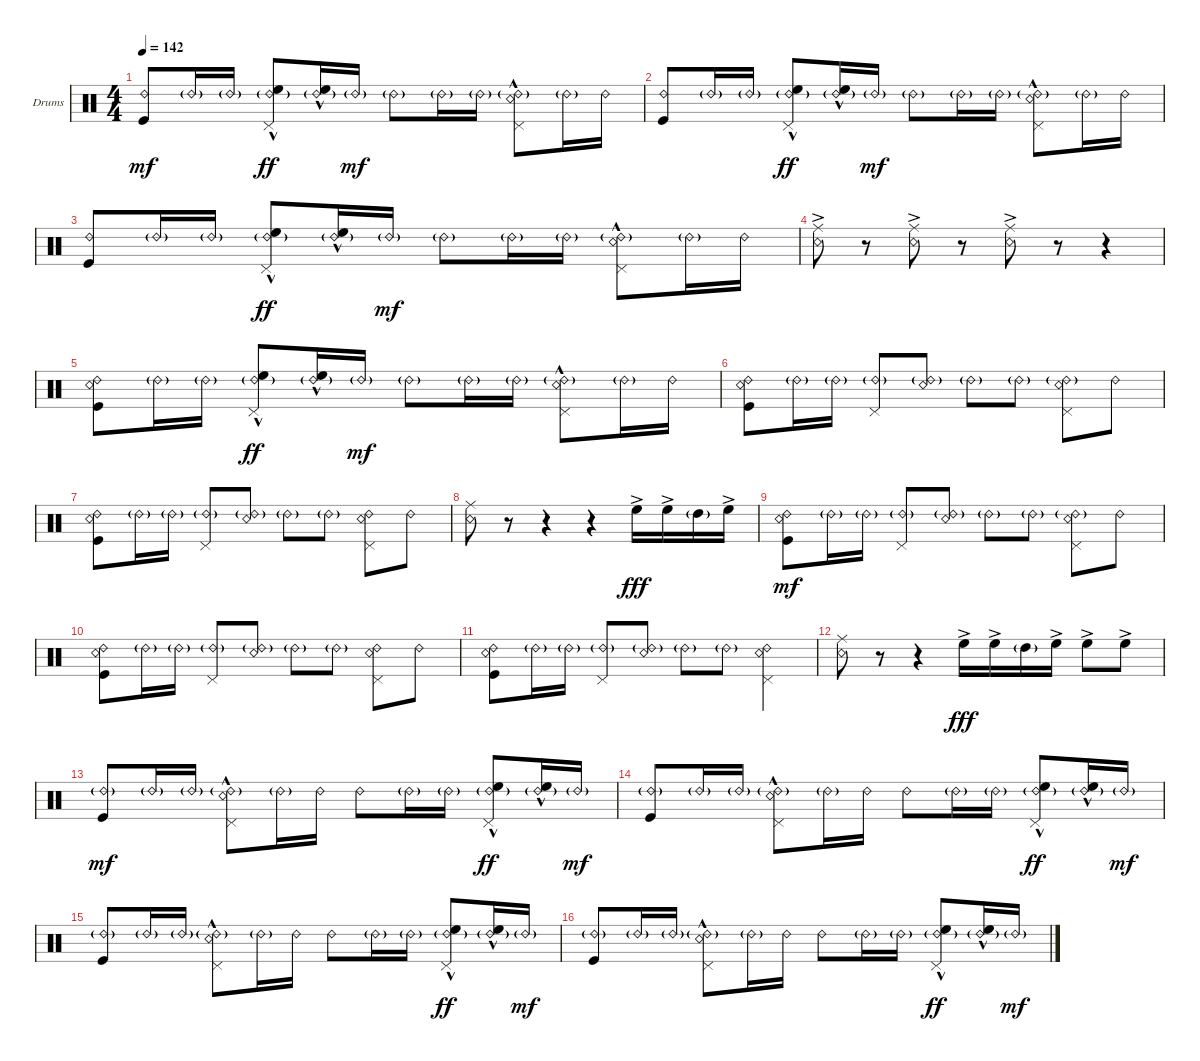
\defaultSystemsLayout 4
\bracketExtendMode groupsimilarinstruments
\firstSystemTrackNameOrientation horizontal
\otherSystemsTrackNameOrientation horizontal
\track ("Drums" "Drums") {instrument percussion}
\staff {score}
\articulation defaults
\ts (4 4)
\tempo 142
\clef neutral
\scale
0.333333
\ks c
("Ride (bell) 2" "Kick (hit)").8{dy mf} "Ride (bell) 2"{g}.16 "Ride (bell) 2"{g}.16 ("Ride (bell) 2"{g} "High Floor Tom (hit)"{hac} "Pedal Hi-Hat (hit)").8{dy ff} ("Ride (bell) 2"{g} "High Floor Tom (hit)"{hac}).16 "Ride (bell) 2"{g}.16{dy mf} "Ride (bell) 2"{g}.8 "Ride (bell) 2"{g}.16 "Ride (bell) 2"{g}.16 ("Ride (bell) 2"{g} "Snare (rim shot)"{hac} "Pedal Hi-Hat (hit)").8 "Ride (bell) 2"{g}.16 "Ride (bell) 2".16 |
\scale
0.333333 ("Ride (bell) 2" "Kick (hit)").8 "Ride (bell) 2"{g}.16 "Ride (bell) 2"{g}.16 ("Ride (bell) 2"{g} "High Floor Tom (hit)"{hac} "Pedal Hi-Hat (hit)").8{dy ff} ("Ride (bell) 2"{g} "High Floor Tom (hit)"{hac}).16 "Ride (bell) 2"{g}.16{dy mf} "Ride (bell) 2"{g}.8 "Ride (bell) 2"{g}.16 "Ride (bell) 2"{g}.16 ("Ride (bell) 2"{g} "Snare (rim shot)"{hac} "Pedal Hi-Hat (hit)").8 "Ride (bell) 2"{g}.16 "Ride (bell) 2".16 |
\scale
0.333333 ("Ride (bell) 2" "Kick (hit)").8 "Ride (bell) 2"{g}.16 "Ride (bell) 2"{g}.16 ("Ride (bell) 2"{g} "High Floor Tom (hit)"{hac} "Pedal Hi-Hat (hit)").8{dy ff} ("Ride (bell) 2"{g} "High Floor Tom (hit)"{hac}).16 "Ride (bell) 2"{g}.16{dy mf} "Ride (bell) 2"{g}.8 "Ride (bell) 2"{g}.16 "Ride (bell) 2"{g}.16 ("Ride (bell) 2"{g} "Snare (rim shot)"{hac} "Pedal Hi-Hat (hit)").8 "Ride (bell) 2"{g}.16 "Ride (bell) 2".16 |
\scale
0.333333 ("Snare (rim shot)"{ac} "Ride (middle)"{ac}).8 r.8 ("Snare (rim shot)"{ac} "Ride (middle)"{ac}).8 r.8 ("Snare (rim shot)"{ac} "Ride (middle)"{ac}).8 r.8 r.4 |
\scale
0.333333 ("Ride (bell) 2" "Kick (hit)" "Snare (rim shot)").8 "Ride (bell) 2"{g}.16 "Ride (bell) 2"{g}.16 ("Ride (bell) 2"{g} "High Floor Tom (hit)"{hac} "Pedal Hi-Hat (hit)").8{dy ff} ("Ride (bell) 2"{g} "High Floor Tom (hit)"{hac}).16 "Ride (bell) 2"{g}.16{dy mf} "Ride (bell) 2"{g}.8 "Ride (bell) 2"{g}.16 "Ride (bell) 2"{g}.16 ("Ride (bell) 2"{g} "Snare (rim shot)"{hac} "Pedal Hi-Hat (hit)").8 "Ride (bell) 2"{g}.16 "Ride (bell) 2".16 |
\scale
0.333333 ("Ride (bell) 2" "Kick (hit)" "Snare (rim shot)").8 "Ride (bell) 2"{g}.16 "Ride (bell) 2"{g}.16 ("Ride (bell) 2"{g} "Pedal Hi-Hat (hit)").8 ("Ride (bell) 2"{g} "Snare (rim shot)").8 "Ride (bell) 2"{g}.8 "Ride (bell) 2"{g}.8 ("Ride (bell) 2"{g} "Snare (rim shot)" "Pedal Hi-Hat (hit)").8 "Ride (bell) 2".8 |
\scale
0.333333 ("Ride (bell) 2" "Kick (hit)" "Snare (rim shot)").8 "Ride (bell) 2"{g}.16 "Ride (bell) 2"{g}.16 ("Ride (bell) 2"{g} "Pedal Hi-Hat (hit)").8 ("Ride (bell) 2"{g} "Snare (rim shot)").8 "Ride (bell) 2"{g}.8 "Ride (bell) 2"{g}.8 ("Ride (bell) 2" "Snare (rim shot)" "Pedal Hi-Hat (hit)").8 "Ride (bell) 2".8 |
\scale
0.333333 ("Snare (rim shot)" "Ride (middle)").8 r.8 r.4 r.4 "High Floor Tom (hit)"{ac}.16{dy fff} "High Floor Tom (hit)"{ac}.16 "High Tom (hit)"{g}.16 "High Floor Tom (hit)"{ac}.16 |
\scale
0.333333 ("Ride (bell) 2" "Kick (hit)" "Snare (rim shot)").8{dy mf} "Ride (bell) 2"{g}.16 "Ride (bell) 2"{g}.16 ("Ride (bell) 2"{g} "Pedal Hi-Hat (hit)").8 ("Ride (bell) 2"{g} "Snare (rim shot)").8 "Ride (bell) 2"{g}.8 "Ride (bell) 2"{g}.8 ("Ride (bell) 2"{g} "Snare (rim shot)" "Pedal Hi-Hat (hit)").8 "Ride (bell) 2".8 |
\scale
0.333333 ("Ride (bell) 2" "Kick (hit)" "Snare (rim shot)").8 "Ride (bell) 2"{g}.16 "Ride (bell) 2"{g}.16 ("Ride (bell) 2"{g} "Pedal Hi-Hat (hit)").8 ("Ride (bell) 2"{g} "Snare (rim shot)").8 "Ride (bell) 2"{g}.8 "Ride (bell) 2"{g}.8 ("Ride (bell) 2" "Snare (rim shot)" "Pedal Hi-Hat (hit)").8 "Ride (bell) 2".8 |
\scale
0.333333 ("Ride (bell) 2" "Kick (hit)" "Snare (rim shot)").8 "Ride (bell) 2"{g}.16 "Ride (bell) 2"{g}.16 ("Ride (bell) 2"{g} "Pedal Hi-Hat (hit)").8 ("Ride (bell) 2"{g} "Snare (rim shot)").8 "Ride (bell) 2"{g}.8 "Ride (bell) 2"{g}.8 ("Ride (bell) 2" "Snare (rim shot)" "Pedal Hi-Hat (hit)").4 |
\scale
0.333333 ("Snare (rim shot)" "Ride (middle)").8 r.8 r.4 "High Floor Tom (hit)"{ac}.16{dy fff} "High Floor Tom (hit)"{ac}.16 "High Tom (hit)"{g}.16 "High Floor Tom (hit)"{ac}.16 "High Floor Tom (hit)"{ac}.8 "High Floor Tom (hit)"{ac}.8 |
\scale
0.333333 ("Ride (bell) 2"{g} "Kick (hit)").8{dy mf} "Ride (bell) 2"{g}.16 "Ride (bell) 2"{g}.16 ("Ride (bell) 2"{g} "Snare (rim shot)"{hac} "Pedal Hi-Hat (hit)").8 "Ride (bell) 2"{g}.16 "Ride (bell) 2".16 "Ride (bell) 2".8 "Ride (bell) 2"{g}.16 "Ride (bell) 2"{g}.16 ("Ride (bell) 2"{g} "High Floor Tom (hit)"{hac} "Pedal Hi-Hat (hit)").8{dy ff} ("Ride (bell) 2"{g} "High Floor Tom (hit)"{hac}).16 "Ride (bell) 2"{g}.16{dy mf} |
\scale
0.333333 ("Ride (bell) 2"{g} "Kick (hit)").8 "Ride (bell) 2"{g}.16 "Ride (bell) 2"{g}.16 ("Ride (bell) 2"{g} "Snare (rim shot)"{hac} "Pedal Hi-Hat (hit)").8 "Ride (bell) 2"{g}.16 "Ride (bell) 2".16 "Ride (bell) 2".8 "Ride (bell) 2"{g}.16 "Ride (bell) 2"{g}.16 ("Ride (bell) 2"{g} "High Floor Tom (hit)"{hac} "Pedal Hi-Hat (hit)").8{dy ff} ("Ride (bell) 2"{g} "High Floor Tom (hit)"{hac}).16 "Ride (bell) 2"{g}.16{dy mf} |
\scale
0.333333 ("Ride (bell) 2"{g} "Kick (hit)").8 "Ride (bell) 2"{g}.16 "Ride (bell) 2"{g}.16 ("Ride (bell) 2"{g} "Snare (rim shot)"{hac} "Pedal Hi-Hat (hit)").8 "Ride (bell) 2"{g}.16 "Ride (bell) 2".16 "Ride (bell) 2".8 "Ride (bell) 2"{g}.16 "Ride (bell) 2"{g}.16 ("Ride (bell) 2"{g} "High Floor Tom (hit)"{hac} "Pedal Hi-Hat (hit)").8{dy ff} ("Ride (bell) 2"{g} "High Floor Tom (hit)"{hac}).16 "Ride (bell) 2"{g}.16{dy mf} |
\scale
0.333333 ("Ride (bell) 2"{g} "Kick (hit)").8 "Ride (bell) 2"{g}.16 "Ride (bell) 2"{g}.16 ("Ride (bell) 2"{g} "Snare (rim shot)"{hac} "Pedal Hi-Hat (hit)").8 "Ride (bell) 2"{g}.16 "Ride (bell) 2".16 "Ride (bell) 2".8 "Ride (bell) 2"{g}.16 "Ride (bell) 2"{g}.16 ("Ride (bell) 2"{g} "High Floor Tom (hit)"{hac} "Pedal Hi-Hat (hit)").8{dy ff} ("Ride (bell) 2"{g} "High Floor Tom (hit)"{hac}).16 "Ride (bell) 2"{g}.16{dy mf}
